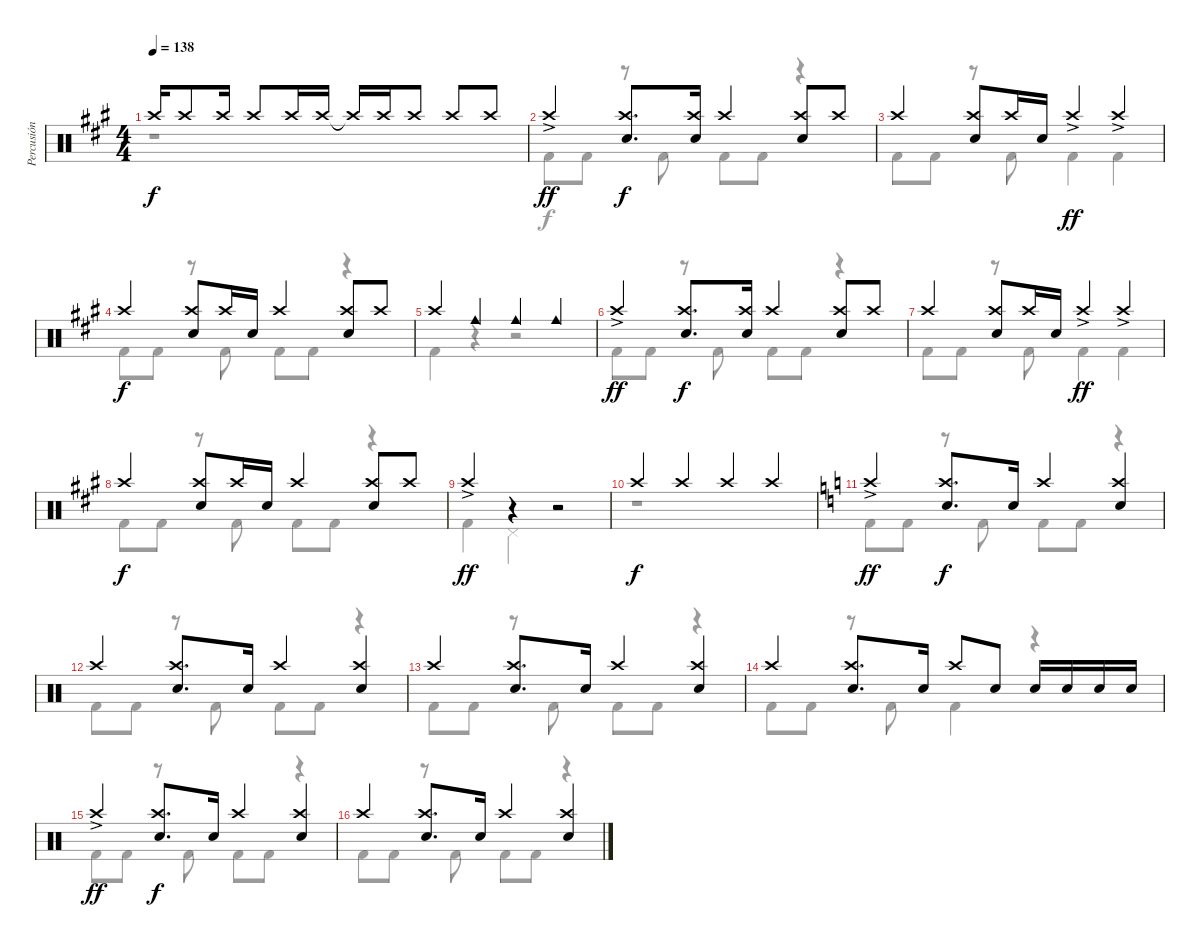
\track ("Percusión" "Percusión") {instrument percussion}
\staff {score}
\articulation defaults
\voice
\ts (4 4)
\tempo 138
\clef neutral
\ks a "Crash high (hit)".16{dy f} "Crash high (hit)".8 "Crash high (hit)".16 "Crash high (hit)".8 "Crash high (hit)".16 "Crash high (hit)".16 "Crash high (hit)"{t}.16 "Crash high (hit)".16 "Crash high (hit)".8 "Crash high (hit)".8 "Crash high (hit)".8
|
"Crash high (hit)"{ac}.4{dy ff} ("Electric Snare (hit)" "Crash high (hit)").8{d dy f} ("Electric Snare (hit)" "Crash high (hit)").16 "Crash high (hit)".4 ("Electric Snare (hit)" "Crash high (hit)").8 "Crash high (hit)".8 |
"Crash high (hit)".4 ("Electric Snare (hit)" "Crash high (hit)").8 "Crash high (hit)".16 "Electric Snare (hit)".16 "Crash high (hit)"{ac}.4{dy ff} "Crash high (hit)"{ac}.4 |
"Crash high (hit)".4{dy f} ("Electric Snare (hit)" "Crash high (hit)").8 "Crash high (hit)".16 "Electric Snare (hit)".16 "Crash high (hit)".4 ("Electric Snare (hit)" "Crash high (hit)").8 "Crash high (hit)".8 |
"Crash high (hit)".4 "Cowbell medium (hit)".4 "Cowbell medium (hit)".4 "Cowbell medium (hit)".4 |
"Crash high (hit)"{ac}.4{dy ff} ("Electric Snare (hit)" "Crash high (hit)").8{d dy f} ("Electric Snare (hit)" "Crash high (hit)").16 "Crash high (hit)".4 ("Electric Snare (hit)" "Crash high (hit)").8 "Crash high (hit)".8 |
"Crash high (hit)".4 ("Electric Snare (hit)" "Crash high (hit)").8 "Crash high (hit)".16 "Electric Snare (hit)".16 "Crash high (hit)"{ac}.4{dy ff} "Crash high (hit)"{ac}.4 |
"Crash high (hit)".4{dy f} ("Electric Snare (hit)" "Crash high (hit)").8 "Crash high (hit)".16 "Electric Snare (hit)".16 "Crash high (hit)".4 ("Electric Snare (hit)" "Crash high (hit)").8 "Crash high (hit)".8 |
"Crash high (hit)"{ac}.4{dy ff} r.4 r.2 |
"Crash high (hit)".4{dy f} "Crash high (hit)".4 "Crash high (hit)".4 "Crash high (hit)".4 |
\ks c "Crash high (hit)"{ac}.4{dy ff}
("Electric Snare (hit)" "Crash high (hit)").8{d dy f} "Electric Snare (hit)".16 "Crash high (hit)".4 ("Electric Snare (hit)" "Crash high (hit)").4 |
"Crash high (hit)".4 ("Electric Snare (hit)" "Crash high (hit)").8{d} "Electric Snare (hit)".16 "Crash high (hit)".4 ("Electric Snare (hit)" "Crash high (hit)").4 |
"Crash high (hit)".4 ("Electric Snare (hit)" "Crash high (hit)").8{d} "Electric Snare (hit)".16 "Crash high (hit)".4 ("Electric Snare (hit)" "Crash high (hit)").4 |
"Crash high (hit)".4 ("Electric Snare (hit)" "Crash high (hit)").8{d} "Electric Snare (hit)".16 "Crash high (hit)".8 "Electric Snare (hit)".8 "Electric Snare (hit)".16 "Electric Snare (hit)".16 "Electric Snare (hit)".16 "Electric Snare (hit)".16 |
"Crash high (hit)"{ac}.4{dy ff} ("Electric Snare (hit)" "Crash high (hit)").8{d dy f} "Electric Snare (hit)".16 "Crash high (hit)".4 ("Electric Snare (hit)" "Crash high (hit)").4 |
"Crash high (hit)".4 ("Electric Snare (hit)" "Crash high (hit)").8{d} "Electric Snare (hit)".16 "Crash high (hit)".4 ("Electric Snare (hit)" "Crash high (hit)").4
\voice
\clef neutral
\ottava regular
\simile none
\ks a
r.1{dy f} |
"Kick (hit) 2".8 "Kick (hit) 2".8 r.8 "Kick (hit) 2".8 "Kick (hit) 2".8 "Kick (hit) 2".8 r.4 |
"Kick (hit) 2".8 "Kick (hit) 2".8 r.8 "Kick (hit) 2".8 "Kick (hit) 2".4 "Kick (hit) 2".4 |
"Kick (hit) 2".8 "Kick (hit) 2".8 r.8 "Kick (hit) 2".8 "Kick (hit) 2".8 "Kick (hit) 2".8 r.4 |
"Kick (hit) 2".4 r.4 r.2 |
"Kick (hit) 2".8 "Kick (hit) 2".8 r.8 "Kick (hit) 2".8 "Kick (hit) 2".8 "Kick (hit) 2".8 r.4 |
"Kick (hit) 2".8 "Kick (hit) 2".8 r.8 "Kick (hit) 2".8 "Kick (hit) 2".4 "Kick (hit) 2".4 |
"Kick (hit) 2".8 "Kick (hit) 2".8 r.8 "Kick (hit) 2".8 "Kick (hit) 2".8 "Kick (hit) 2".8 r.4 |
"Kick (hit) 2".4 "Pedal Hi-Hat (hit)".4 r.2 |
r.1 |
\ks c "Kick (hit) 2".8 "Kick (hit) 2".8
r.8 "Kick (hit) 2".8 "Kick (hit) 2".8 "Kick (hit) 2".8 r.4 |
"Kick (hit) 2".8 "Kick (hit) 2".8 r.8 "Kick (hit) 2".8 "Kick (hit) 2".8 "Kick (hit) 2".8 r.4 |
"Kick (hit) 2".8 "Kick (hit) 2".8 r.8 "Kick (hit) 2".8 "Kick (hit) 2".8 "Kick (hit) 2".8 r.4 |
"Kick (hit) 2".8 "Kick (hit) 2".8 r.8 "Kick (hit) 2".8 "Kick (hit) 2".4 r.4 |
"Kick (hit) 2".8 "Kick (hit) 2".8 r.8 "Kick (hit) 2".8 "Kick (hit) 2".8 "Kick (hit) 2".8 r.4 |
"Kick (hit) 2".8 "Kick (hit) 2".8 r.8 "Kick (hit) 2".8 "Kick (hit) 2".8 "Kick (hit) 2".8 r.4
